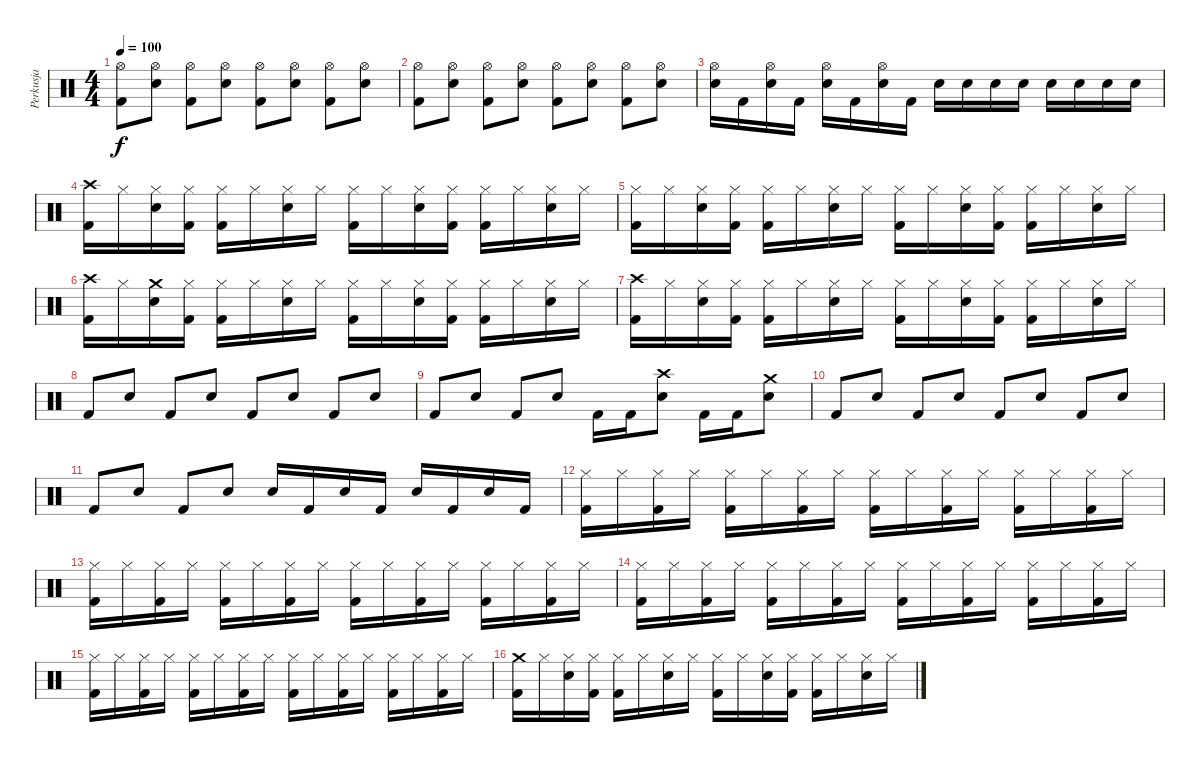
\track ("Perkusja" "Perkusja") {instrument percussion}
\staff {score}
\articulation defaults
\ts (4 4)
\tempo 100
\clef neutral
\ks c
("Hi-Hat (open)" "Kick (hit) 2").8{dy f} ("Hi-Hat (open)" "Electric Snare (hit)").8 ("Hi-Hat (open)" "Kick (hit) 2").8 ("Hi-Hat (open)" "Electric Snare (hit)").8 ("Hi-Hat (open)" "Kick (hit) 2").8 ("Hi-Hat (open)" "Electric Snare (hit)").8 ("Hi-Hat (open)" "Kick (hit) 2").8 ("Hi-Hat (open)" "Electric Snare (hit)").8 |
("Hi-Hat (open)" "Kick (hit) 2").8 ("Hi-Hat (open)" "Electric Snare (hit)").8 ("Hi-Hat (open)" "Kick (hit) 2").8 ("Hi-Hat (open)" "Electric Snare (hit)").8 ("Hi-Hat (open)" "Kick (hit) 2").8 ("Hi-Hat (open)" "Electric Snare (hit)").8 ("Hi-Hat (open)" "Kick (hit) 2").8 ("Hi-Hat (open)" "Electric Snare (hit)").8 |
("Hi-Hat (open)" "Electric Snare (hit)").16 "Kick (hit) 2".16 ("Hi-Hat (open)" "Electric Snare (hit)").16 "Kick (hit) 2".16 ("Hi-Hat (open)" "Electric Snare (hit)").16 "Kick (hit) 2".16 ("Hi-Hat (open)" "Electric Snare (hit)").16 "Kick (hit) 2".16 "Electric Snare (hit)".16 "Electric Snare (hit)".16 "Electric Snare (hit)".16 "Electric Snare (hit)".16 "Electric Snare (hit)".16 "Electric Snare (hit)".16 "Electric Snare (hit)".16 "Electric Snare (hit)".16 |
("Crash high (hit)" "Kick (hit) 2").16 "Hi-Hat (closed)".16 ("Hi-Hat (closed)" "Electric Snare (hit)").16 ("Hi-Hat (closed)" "Kick (hit) 2").16 ("Hi-Hat (closed)" "Kick (hit) 2").16 "Hi-Hat (closed)".16 ("Hi-Hat (closed)" "Electric Snare (hit)").16 "Hi-Hat (closed)".16 ("Hi-Hat (closed)" "Kick (hit) 2").16 "Hi-Hat (closed)".16 ("Hi-Hat (closed)" "Electric Snare (hit)").16 ("Hi-Hat (closed)" "Kick (hit) 2").16 ("Hi-Hat (closed)" "Kick (hit) 2").16 "Hi-Hat (closed)".16 ("Hi-Hat (closed)" "Electric Snare (hit)").16 "Hi-Hat (closed)".16 |
("Hi-Hat (closed)" "Kick (hit) 2").16 "Hi-Hat (closed)".16 ("Hi-Hat (closed)" "Electric Snare (hit)").16 ("Hi-Hat (closed)" "Kick (hit) 2").16 ("Hi-Hat (closed)" "Kick (hit) 2").16 "Hi-Hat (closed)".16 ("Hi-Hat (closed)" "Electric Snare (hit)").16 "Hi-Hat (closed)".16 ("Hi-Hat (closed)" "Kick (hit) 2").16 "Hi-Hat (closed)".16 ("Hi-Hat (closed)" "Electric Snare (hit)").16 ("Hi-Hat (closed)" "Kick (hit) 2").16 ("Hi-Hat (closed)" "Kick (hit) 2").16 "Hi-Hat (closed)".16 ("Hi-Hat (closed)" "Electric Snare (hit)").16 "Hi-Hat (closed)".16 |
("Crash high (hit)" "Kick (hit) 2").16 "Hi-Hat (closed)".16 ("Crash medium (hit)" "Electric Snare (hit)").16 ("Hi-Hat (closed)" "Kick (hit) 2").16 ("Hi-Hat (closed)" "Kick (hit) 2").16 "Hi-Hat (closed)".16 ("Hi-Hat (closed)" "Electric Snare (hit)").16 "Hi-Hat (closed)".16 ("Hi-Hat (closed)" "Kick (hit) 2").16 "Hi-Hat (closed)".16 ("Hi-Hat (closed)" "Electric Snare (hit)").16 ("Hi-Hat (closed)" "Kick (hit) 2").16 ("Hi-Hat (closed)" "Kick (hit) 2").16 "Hi-Hat (closed)".16 ("Hi-Hat (closed)" "Electric Snare (hit)").16 "Hi-Hat (closed)".16 |
("Crash high (hit)" "Kick (hit) 2").16 "Hi-Hat (closed)".16 ("Hi-Hat (closed)" "Electric Snare (hit)").16 ("Hi-Hat (closed)" "Kick (hit) 2").16 ("Hi-Hat (closed)" "Kick (hit) 2").16 "Hi-Hat (closed)".16 ("Hi-Hat (closed)" "Electric Snare (hit)").16 "Hi-Hat (closed)".16 ("Hi-Hat (closed)" "Kick (hit) 2").16 "Hi-Hat (closed)".16 ("Hi-Hat (closed)" "Electric Snare (hit)").16 ("Hi-Hat (closed)" "Kick (hit) 2").16 ("Hi-Hat (closed)" "Kick (hit) 2").16 "Hi-Hat (closed)".16 ("Hi-Hat (closed)" "Electric Snare (hit)").16 "Hi-Hat (closed)".16 |
"Kick (hit) 2".8 "Electric Snare (hit)".8 "Kick (hit) 2".8 "Electric Snare (hit)".8 "Kick (hit) 2".8 "Electric Snare (hit)".8 "Kick (hit) 2".8 "Electric Snare (hit)".8 |
"Kick (hit) 2".8 "Electric Snare (hit)".8 "Kick (hit) 2".8 "Electric Snare (hit)".8 "Kick (hit) 2".16 "Kick (hit) 2".16 ("Crash high (hit)" "Electric Snare (hit)").8 "Kick (hit) 2".16 "Kick (hit) 2".16 ("Crash medium (hit)" "Electric Snare (hit)").8 |
"Kick (hit) 2".8 "Electric Snare (hit)".8 "Kick (hit) 2".8 "Electric Snare (hit)".8 "Kick (hit) 2".8 "Electric Snare (hit)".8 "Kick (hit) 2".8 "Electric Snare (hit)".8 |
"Kick (hit) 2".8 "Electric Snare (hit)".8 "Kick (hit) 2".8 "Electric Snare (hit)".8 "Electric Snare (hit)".16 "Kick (hit) 2".16 "Electric Snare (hit)".16 "Kick (hit) 2".16 "Electric Snare (hit)".16 "Kick (hit) 2".16 "Electric Snare (hit)".16 "Kick (hit) 2".16 |
("Hi-Hat (closed)" "Kick (hit) 2").16 "Hi-Hat (closed)".16 ("Hi-Hat (closed)" "Kick (hit) 2").16 "Hi-Hat (closed)".16 ("Hi-Hat (closed)" "Kick (hit) 2").16 "Hi-Hat (closed)".16 ("Hi-Hat (closed)" "Kick (hit) 2").16 "Hi-Hat (closed)".16 ("Hi-Hat (closed)" "Kick (hit) 2").16 "Hi-Hat (closed)".16 ("Hi-Hat (closed)" "Kick (hit) 2").16 "Hi-Hat (closed)".16 ("Hi-Hat (closed)" "Kick (hit) 2").16 "Hi-Hat (closed)".16 ("Hi-Hat (closed)" "Kick (hit) 2").16 "Hi-Hat (closed)".16 |
("Hi-Hat (closed)" "Kick (hit) 2").16 "Hi-Hat (closed)".16 ("Hi-Hat (closed)" "Kick (hit) 2").16 "Hi-Hat (closed)".16 ("Hi-Hat (closed)" "Kick (hit) 2").16 "Hi-Hat (closed)".16 ("Hi-Hat (closed)" "Kick (hit) 2").16 "Hi-Hat (closed)".16 ("Hi-Hat (closed)" "Kick (hit) 2").16 "Hi-Hat (closed)".16 ("Hi-Hat (closed)" "Kick (hit) 2").16 "Hi-Hat (closed)".16 ("Hi-Hat (closed)" "Kick (hit) 2").16 "Hi-Hat (closed)".16 ("Hi-Hat (closed)" "Kick (hit) 2").16 "Hi-Hat (closed)".16 |
("Hi-Hat (closed)" "Kick (hit) 2").16 "Hi-Hat (closed)".16 ("Hi-Hat (closed)" "Kick (hit) 2").16 "Hi-Hat (closed)".16 ("Hi-Hat (closed)" "Kick (hit) 2").16 "Hi-Hat (closed)".16 ("Hi-Hat (closed)" "Kick (hit) 2").16 "Hi-Hat (closed)".16 ("Hi-Hat (closed)" "Kick (hit) 2").16 "Hi-Hat (closed)".16 ("Hi-Hat (closed)" "Kick (hit) 2").16 "Hi-Hat (closed)".16 ("Hi-Hat (closed)" "Kick (hit) 2").16 "Hi-Hat (closed)".16 ("Hi-Hat (closed)" "Kick (hit) 2").16 "Hi-Hat (closed)".16 |
("Hi-Hat (closed)" "Kick (hit) 2").16 "Hi-Hat (closed)".16 ("Hi-Hat (closed)" "Kick (hit) 2").16 "Hi-Hat (closed)".16 ("Hi-Hat (closed)" "Kick (hit) 2").16 "Hi-Hat (closed)".16 ("Hi-Hat (closed)" "Kick (hit) 2").16 "Hi-Hat (closed)".16 ("Hi-Hat (closed)" "Kick (hit) 2").16 "Hi-Hat (closed)".16 ("Hi-Hat (closed)" "Kick (hit) 2").16 "Hi-Hat (closed)".16 ("Hi-Hat (closed)" "Kick (hit) 2").16 "Hi-Hat (closed)".16 ("Hi-Hat (closed)" "Kick (hit) 2").16 "Hi-Hat (closed)".16 |
("Crash medium (hit)" "Kick (hit) 2").16 "Hi-Hat (closed)".16 ("Hi-Hat (closed)" "Electric Snare (hit)").16 ("Hi-Hat (closed)" "Kick (hit) 2").16 ("Hi-Hat (closed)" "Kick (hit) 2").16 "Hi-Hat (closed)".16 ("Hi-Hat (closed)" "Electric Snare (hit)").16 "Hi-Hat (closed)".16 ("Hi-Hat (closed)" "Kick (hit) 2").16 "Hi-Hat (closed)".16 ("Hi-Hat (closed)" "Electric Snare (hit)").16 ("Hi-Hat (closed)" "Kick (hit) 2").16 ("Hi-Hat (closed)" "Kick (hit) 2").16 "Hi-Hat (closed)".16 ("Hi-Hat (closed)" "Electric Snare (hit)").16 "Hi-Hat (closed)".16
